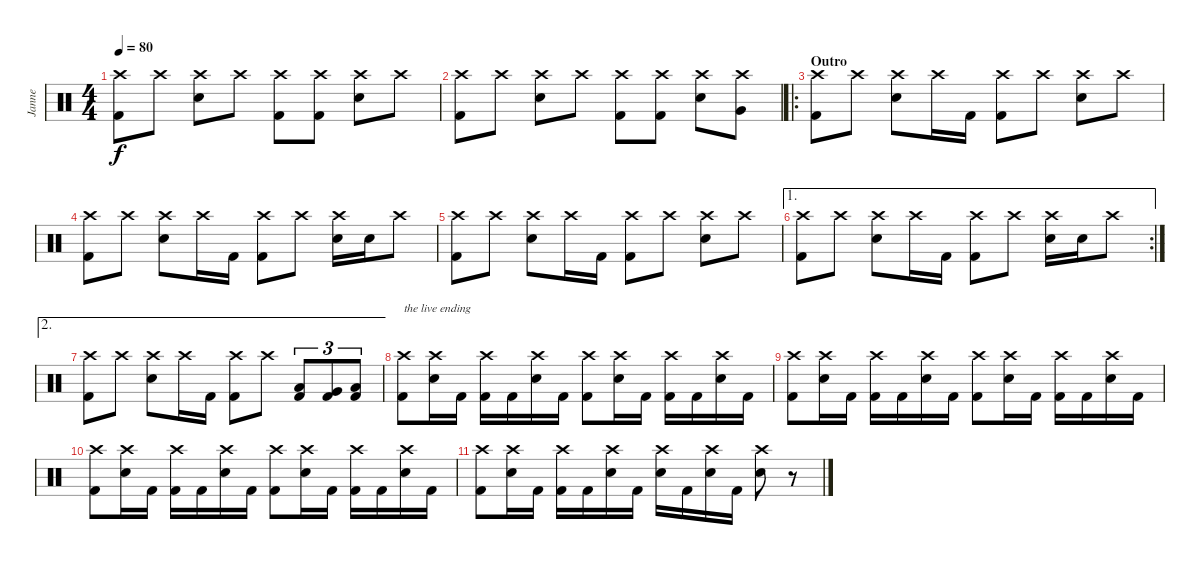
\track ("Janne" "Janne") {instrument percussion}
\staff {score}
\articulation defaults
\ts (4 4)
\tempo 80
\clef neutral
\ks c
("Crash high (hit)" "Kick (hit) 2").8{dy f} "Crash high (hit)".8 ("Crash high (hit)" "Electric Snare (hit)").8 "Crash high (hit)".8 ("Crash high (hit)" "Kick (hit) 2").8 ("Crash high (hit)" "Kick (hit) 2").8 ("Crash high (hit)" "Electric Snare (hit)").8 "Crash high (hit)".8 |
("Crash high (hit)" "Kick (hit) 2").8 "Crash high (hit)".8 ("Crash high (hit)" "Electric Snare (hit)").8 "Crash high (hit)".8 ("Crash high (hit)" "Kick (hit) 2").8 ("Crash high (hit)" "Kick (hit) 2").8 ("Crash high (hit)" "Electric Snare (hit)").8 ("Crash high (hit)" "Very Low Tom (hit)").8 |
\ro
\section ("" "Outro")
("Crash high (hit)" "Kick (hit) 2").8 "Crash high (hit)".8 ("Crash high (hit)" "Electric Snare (hit)").8 "Crash high (hit)".16 "Kick (hit) 2".16 ("Crash high (hit)" "Kick (hit) 2").8 "Crash high (hit)".8 ("Crash high (hit)" "Electric Snare (hit)").8 "Crash high (hit)".8 |
("Crash high (hit)" "Kick (hit) 2").8 "Crash high (hit)".8 ("Crash high (hit)" "Electric Snare (hit)").8 "Crash high (hit)".16 "Kick (hit) 2".16 ("Crash high (hit)" "Kick (hit) 2").8 "Crash high (hit)".8 ("Crash high (hit)" "Electric Snare (hit)").16 "Electric Snare (hit)".16 "Crash high (hit)".8 |
("Crash high (hit)" "Kick (hit) 2").8 "Crash high (hit)".8 ("Crash high (hit)" "Electric Snare (hit)").8 "Crash high (hit)".16 "Kick (hit) 2".16 ("Crash high (hit)" "Kick (hit) 2").8 "Crash high (hit)".8 ("Crash high (hit)" "Electric Snare (hit)").8 "Crash high (hit)".8 |
\ae 1
\rc 2
("Crash high (hit)" "Kick (hit) 2").8 "Crash high (hit)".8 ("Crash high (hit)" "Electric Snare (hit)").8 "Crash high (hit)".16 "Kick (hit) 2".16 ("Crash high (hit)" "Kick (hit) 2").8 "Crash high (hit)".8 ("Crash high (hit)" "Electric Snare (hit)").16 "Electric Snare (hit)".16 "Crash high (hit)".8 |
\ae 2
("Crash high (hit)" "Kick (hit) 2").8 "Crash high (hit)".8 ("Crash high (hit)" "Electric Snare (hit)").8 "Crash high (hit)".16 "Kick (hit) 2".16 ("Crash high (hit)" "Kick (hit) 2").8 "Crash high (hit)".8 ("Low Tom (hit)" "Kick (hit) 2").8{tu (3 2)} ("Very Low Tom (hit)" "Kick (hit) 2").8{tu (3 2)} ("Low Floor Tom (hit)" "Kick (hit) 2").8{tu (3 2)} |
("Crash high (hit)" "Kick (hit) 2").8{txt "the live ending"} ("Crash high (hit)" "Electric Snare (hit)").16 "Kick (hit) 2".16 ("Crash high (hit)" "Kick (hit) 2").16 "Kick (hit) 2".16 ("Crash high (hit)" "Electric Snare (hit)").16 "Kick (hit) 2".16 ("Crash high (hit)" "Kick (hit) 2").8 ("Crash high (hit)" "Electric Snare (hit)").16 "Kick (hit) 2".16 ("Crash high (hit)" "Kick (hit) 2").16 "Kick (hit) 2".16 ("Crash high (hit)" "Electric Snare (hit)").16 "Kick (hit) 2".16 |
("Crash high (hit)" "Kick (hit) 2").8 ("Crash high (hit)" "Electric Snare (hit)").16 "Kick (hit) 2".16 ("Crash high (hit)" "Kick (hit) 2").16 "Kick (hit) 2".16 ("Crash high (hit)" "Electric Snare (hit)").16 "Kick (hit) 2".16 ("Crash high (hit)" "Kick (hit) 2").8 ("Crash high (hit)" "Electric Snare (hit)").16 "Kick (hit) 2".16 ("Crash high (hit)" "Kick (hit) 2").16 "Kick (hit) 2".16 ("Crash high (hit)" "Electric Snare (hit)").16 "Kick (hit) 2".16 |
("Crash high (hit)" "Kick (hit) 2").8 ("Crash high (hit)" "Electric Snare (hit)").16 "Kick (hit) 2".16 ("Crash high (hit)" "Kick (hit) 2").16 "Kick (hit) 2".16 ("Crash high (hit)" "Electric Snare (hit)").16 "Kick (hit) 2".16 ("Crash high (hit)" "Kick (hit) 2").8 ("Crash high (hit)" "Electric Snare (hit)").16 "Kick (hit) 2".16 ("Crash high (hit)" "Kick (hit) 2").16 "Kick (hit) 2".16 ("Crash high (hit)" "Electric Snare (hit)").16 "Kick (hit) 2".16 |
("Crash high (hit)" "Kick (hit) 2").8 ("Crash high (hit)" "Electric Snare (hit)").16 "Kick (hit) 2".16 ("Crash high (hit)" "Kick (hit) 2").16 "Kick (hit) 2".16 ("Crash high (hit)" "Electric Snare (hit)").16 "Kick (hit) 2".16 ("Crash high (hit)" "Electric Snare (hit)").16 "Kick (hit) 2".16 ("Crash high (hit)" "Electric Snare (hit)").16 "Kick (hit) 2".16 ("Crash high (hit)" "Electric Snare (hit)").8 r.8
